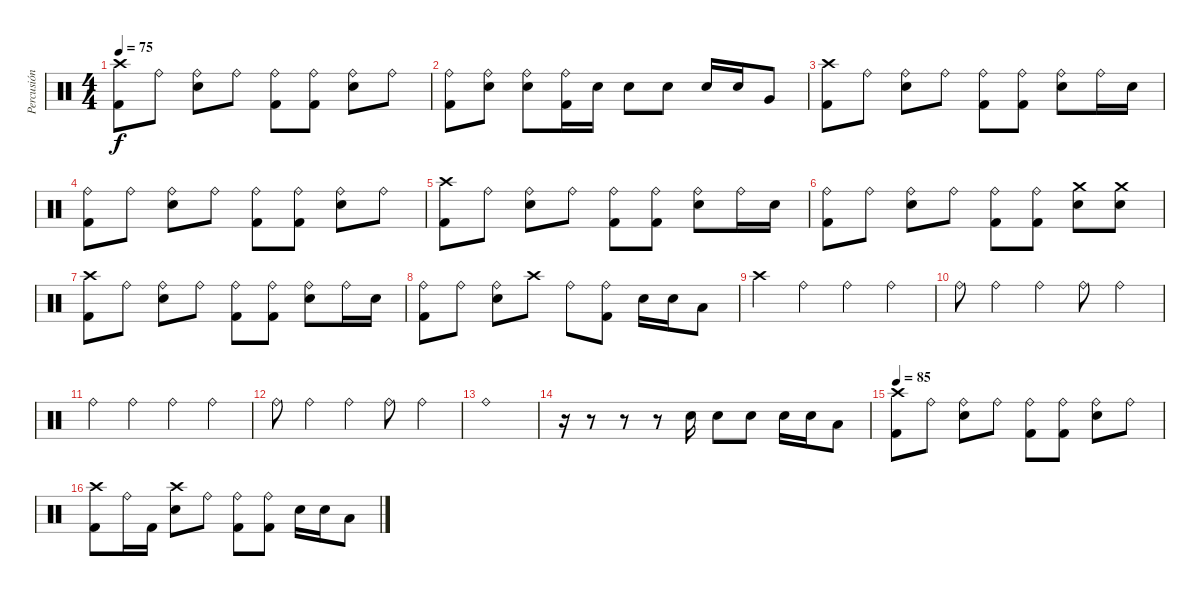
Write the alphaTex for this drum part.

\track ("Percusión" "Percusión") {instrument percussion}
\staff {score}
\articulation defaults
\ts (4 4)
\tempo 75
\clef neutral
\ks c
("Crash high (hit)" "Kick (hit) 2").8{dy f} "Ride (bell)".8 ("Ride (bell)" "Electric Snare (hit)").8 "Ride (bell)".8 ("Ride (bell)" "Kick (hit) 2").8 ("Ride (bell)" "Kick (hit) 2").8 ("Ride (bell)" "Electric Snare (hit)").8 "Ride (bell)".8 |
("Ride (bell)" "Kick (hit) 2").8 ("Ride (bell)" "Electric Snare (hit)").8 ("Ride (bell)" "Electric Snare (hit)").8 ("Ride (bell)" "Kick (hit) 2").16 "Electric Snare (hit)".16 "Electric Snare (hit)".8 "Electric Snare (hit)".8 "Electric Snare (hit)".16 "Electric Snare (hit)".16 "Very Low Tom (hit)".8 |
("Crash high (hit)" "Kick (hit) 2").8 "Ride (bell)".8 ("Ride (bell)" "Electric Snare (hit)").8 "Ride (bell)".8 ("Ride (bell)" "Kick (hit) 2").8 ("Ride (bell)" "Kick (hit) 2").8 ("Ride (bell)" "Electric Snare (hit)").8 "Ride (bell)".16 "Electric Snare (hit)".16 |
("Ride (bell)" "Kick (hit) 2").8 "Ride (bell)".8 ("Ride (bell)" "Electric Snare (hit)").8 "Ride (bell)".8 ("Ride (bell)" "Kick (hit) 2").8 ("Ride (bell)" "Kick (hit) 2").8 ("Ride (bell)" "Electric Snare (hit)").8 "Ride (bell)".8 |
("Crash high (hit)" "Kick (hit) 2").8 "Ride (bell)".8 ("Ride (bell)" "Electric Snare (hit)").8 "Ride (bell)".8 ("Ride (bell)" "Kick (hit) 2").8 ("Ride (bell)" "Kick (hit) 2").8 ("Ride (bell)" "Electric Snare (hit)").8 "Ride (bell)".16 "Electric Snare (hit)".16 |
("Ride (bell)" "Kick (hit) 2").8 "Ride (bell)".8 ("Ride (bell)" "Electric Snare (hit)").8 "Ride (bell)".8 ("Ride (bell)" "Kick (hit) 2").8 ("Ride (bell)" "Kick (hit) 2").8 ("Crash medium (hit)" "Electric Snare (hit)").8 ("Crash medium (hit)" "Electric Snare (hit)").8 |
("Crash high (hit)" "Kick (hit) 2").8 "Ride (bell)".8 ("Ride (bell)" "Electric Snare (hit)").8 "Ride (bell)".8 ("Ride (bell)" "Kick (hit) 2").8 ("Ride (bell)" "Kick (hit) 2").8 ("Ride (bell)" "Electric Snare (hit)").8 "Ride (bell)".16 "Electric Snare (hit)".16 |
("Ride (bell)" "Kick (hit) 2").8 "Ride (bell)".8 ("Ride (bell)" "Electric Snare (hit)").8 "Crash high (hit)".8 "Ride (bell)".8 ("Ride (bell)" "Kick (hit) 2").8 "Electric Snare (hit)".16 "Electric Snare (hit)".16 "Low Tom (hit)".8 |
"Crash high (hit)".4 "Ride (bell)".4 "Ride (bell)".4 "Ride (bell)".4 |
"Ride (bell)".8 "Ride (bell)".4 "Ride (bell)".4 "Ride (bell)".8 "Ride (bell)".4 |
"Ride (bell)".4 "Ride (bell)".4 "Ride (bell)".4 "Ride (bell)".4 |
"Ride (bell)".8 "Ride (bell)".4 "Ride (bell)".4 "Ride (bell)".8 "Ride (bell)".4 |
"Ride (bell)".1 |
r.16 r.8 r.8 r.8 "Electric Snare (hit)".16 "Electric Snare (hit)".8 "Electric Snare (hit)".8 "Electric Snare (hit)".16 "Electric Snare (hit)".16 "Low Tom (hit)".8 |
\tempo 85
("Crash high (hit)" "Kick (hit) 2").8 "Ride (bell)".8 ("Ride (bell)" "Electric Snare (hit)").8 "Ride (bell)".8 ("Ride (bell)" "Kick (hit) 2").8 ("Ride (bell)" "Kick (hit) 2").8 ("Ride (bell)" "Electric Snare (hit)").8 "Ride (bell)".8 |
("Crash high (hit)" "Kick (hit) 2").8 "Ride (bell)".16 "Kick (hit) 2".16 ("Crash high (hit)" "Electric Snare (hit)").8 "Ride (bell)".8 ("Ride (bell)" "Kick (hit) 2").8 ("Ride (bell)" "Kick (hit) 2").8 "Electric Snare (hit)".16 "Electric Snare (hit)".16 "Low Tom (hit)".8
